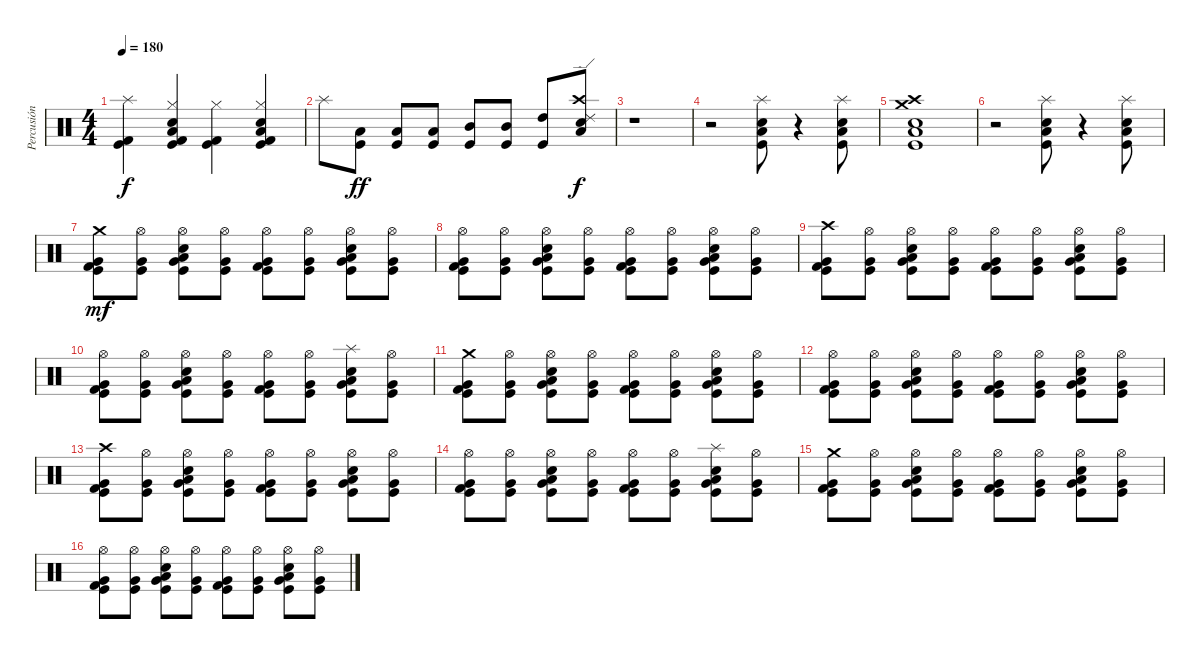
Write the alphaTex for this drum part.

\track ("Percusión" "Percusión") {instrument percussion}
\staff {score}
\articulation defaults
\ts (4 4)
\tempo 180
\clef neutral
\ks c
("Splash (hit)" "Kick (hit) 2" "Kick (hit)").4{dy f} ("Hi-Hat (closed)" "Electric Snare (hit)" "Low Tom (hit)" "Kick (hit) 2" "Kick (hit)").4 ("Hi-Hat (closed)" "Kick (hit) 2" "Kick (hit)").4 ("Hi-Hat (closed)" "Electric Snare (hit)" "Low Tom (hit)" "Kick (hit) 2" "Kick (hit)").4 |
"Splash (hit)".8 ("Low Floor Tom (hit)" "Kick (hit)").8{dy ff} ("Low Floor Tom (hit)" "Kick (hit)").8 ("Low Tom (hit)" "Kick (hit)").8 ("Mid Tom (hit)" "Kick (hit)").8 ("Mid Tom (hit)" "Kick (hit)").8 ("High Tom (hit)" "Kick (hit)").8 ("Crash high (hit)" "Ride (edge) 2" "Low Tom (hit)" "Electric Snare (hit)").8{dy f} |
r.1 |
r.2 ("Kick (hit)" "Splash (hit)" "Low Tom (hit)" "Electric Snare (hit)").8 r.4 ("Splash (hit)" "Kick (hit)" "Low Tom (hit)" "Electric Snare (hit)").8 |
("Crash high (hit)" "Crash medium (hit)" "Kick (hit)" "Low Tom (hit)" "Electric Snare (hit)").1 |
r.2 ("Kick (hit)" "Splash (hit)" "Low Tom (hit)" "Electric Snare (hit)").8 r.4 ("Splash (hit)" "Kick (hit)" "Low Tom (hit)" "Electric Snare (hit)").8 |
("Crash medium (hit)" "Very Low Tom (hit)" "Kick (hit) 2" "Kick (hit)").8{dy mf} ("Hi-Hat (open)" "Very Low Tom (hit)" "Kick (hit)").8 ("Hi-Hat (open)" "Electric Snare (hit)" "Low Floor Tom (hit)" "Very Low Tom (hit)" "Kick (hit)").8 ("Hi-Hat (open)" "Very Low Tom (hit)" "Kick (hit)").8 ("Hi-Hat (open)" "Very Low Tom (hit)" "Kick (hit) 2" "Kick (hit)").8 ("Hi-Hat (open)" "Very Low Tom (hit)" "Kick (hit)").8 ("Hi-Hat (open)" "Electric Snare (hit)" "Low Floor Tom (hit)" "Very Low Tom (hit)" "Kick (hit)").8 ("Hi-Hat (open)" "Very Low Tom (hit)" "Kick (hit)").8 |
("Hi-Hat (open)" "Very Low Tom (hit)" "Kick (hit) 2" "Kick (hit)").8 ("Hi-Hat (open)" "Very Low Tom (hit)" "Kick (hit)").8 ("Hi-Hat (open)" "Electric Snare (hit)" "Low Floor Tom (hit)" "Very Low Tom (hit)" "Kick (hit)").8 ("Hi-Hat (open)" "Very Low Tom (hit)" "Kick (hit)").8 ("Hi-Hat (open)" "Very Low Tom (hit)" "Kick (hit) 2" "Kick (hit)").8 ("Hi-Hat (open)" "Very Low Tom (hit)" "Kick (hit)").8 ("Hi-Hat (open)" "Electric Snare (hit)" "Low Floor Tom (hit)" "Very Low Tom (hit)" "Kick (hit)").8 ("Hi-Hat (open)" "Very Low Tom (hit)" "Kick (hit)").8 |
("Crash high (hit)" "Very Low Tom (hit)" "Kick (hit) 2" "Kick (hit)").8 ("Hi-Hat (open)" "Very Low Tom (hit)" "Kick (hit)").8 ("Hi-Hat (open)" "Electric Snare (hit)" "Low Floor Tom (hit)" "Very Low Tom (hit)" "Kick (hit)").8 ("Hi-Hat (open)" "Very Low Tom (hit)" "Kick (hit)").8 ("Hi-Hat (open)" "Very Low Tom (hit)" "Kick (hit) 2" "Kick (hit)").8 ("Hi-Hat (open)" "Very Low Tom (hit)" "Kick (hit)").8 ("Hi-Hat (open)" "Electric Snare (hit)" "Low Floor Tom (hit)" "Very Low Tom (hit)" "Kick (hit)").8 ("Hi-Hat (open)" "Very Low Tom (hit)" "Kick (hit)").8 |
("Hi-Hat (open)" "Very Low Tom (hit)" "Kick (hit) 2" "Kick (hit)").8 ("Hi-Hat (open)" "Very Low Tom (hit)" "Kick (hit)").8 ("Hi-Hat (open)" "Electric Snare (hit)" "Low Floor Tom (hit)" "Very Low Tom (hit)" "Kick (hit)").8 ("Hi-Hat (open)" "Very Low Tom (hit)" "Kick (hit)").8 ("Hi-Hat (open)" "Very Low Tom (hit)" "Kick (hit) 2" "Kick (hit)").8 ("Hi-Hat (open)" "Very Low Tom (hit)" "Kick (hit)").8 ("Splash (hit)" "Electric Snare (hit)" "Low Floor Tom (hit)" "Very Low Tom (hit)" "Kick (hit)").8 ("Hi-Hat (open)" "Very Low Tom (hit)" "Kick (hit)").8 |
("Crash medium (hit)" "Very Low Tom (hit)" "Kick (hit) 2" "Kick (hit)").8 ("Hi-Hat (open)" "Very Low Tom (hit)" "Kick (hit)").8 ("Hi-Hat (open)" "Electric Snare (hit)" "Low Floor Tom (hit)" "Very Low Tom (hit)" "Kick (hit)").8 ("Hi-Hat (open)" "Very Low Tom (hit)" "Kick (hit)").8 ("Hi-Hat (open)" "Very Low Tom (hit)" "Kick (hit) 2" "Kick (hit)").8 ("Hi-Hat (open)" "Very Low Tom (hit)" "Kick (hit)").8 ("Hi-Hat (open)" "Electric Snare (hit)" "Low Floor Tom (hit)" "Very Low Tom (hit)" "Kick (hit)").8 ("Hi-Hat (open)" "Very Low Tom (hit)" "Kick (hit)").8 |
("Hi-Hat (open)" "Very Low Tom (hit)" "Kick (hit) 2" "Kick (hit)").8 ("Hi-Hat (open)" "Very Low Tom (hit)" "Kick (hit)").8 ("Hi-Hat (open)" "Electric Snare (hit)" "Low Floor Tom (hit)" "Very Low Tom (hit)" "Kick (hit)").8 ("Hi-Hat (open)" "Very Low Tom (hit)" "Kick (hit)").8 ("Hi-Hat (open)" "Very Low Tom (hit)" "Kick (hit) 2" "Kick (hit)").8 ("Hi-Hat (open)" "Very Low Tom (hit)" "Kick (hit)").8 ("Hi-Hat (open)" "Electric Snare (hit)" "Low Floor Tom (hit)" "Very Low Tom (hit)" "Kick (hit)").8 ("Hi-Hat (open)" "Very Low Tom (hit)" "Kick (hit)").8 |
("Crash high (hit)" "Very Low Tom (hit)" "Kick (hit) 2" "Kick (hit)").8 ("Hi-Hat (open)" "Very Low Tom (hit)" "Kick (hit)").8 ("Hi-Hat (open)" "Electric Snare (hit)" "Low Floor Tom (hit)" "Very Low Tom (hit)" "Kick (hit)").8 ("Hi-Hat (open)" "Very Low Tom (hit)" "Kick (hit)").8 ("Hi-Hat (open)" "Very Low Tom (hit)" "Kick (hit) 2" "Kick (hit)").8 ("Hi-Hat (open)" "Very Low Tom (hit)" "Kick (hit)").8 ("Hi-Hat (open)" "Electric Snare (hit)" "Low Floor Tom (hit)" "Very Low Tom (hit)" "Kick (hit)").8 ("Hi-Hat (open)" "Very Low Tom (hit)" "Kick (hit)").8 |
("Hi-Hat (open)" "Very Low Tom (hit)" "Kick (hit) 2" "Kick (hit)").8 ("Hi-Hat (open)" "Very Low Tom (hit)" "Kick (hit)").8 ("Hi-Hat (open)" "Electric Snare (hit)" "Low Floor Tom (hit)" "Very Low Tom (hit)" "Kick (hit)").8 ("Hi-Hat (open)" "Very Low Tom (hit)" "Kick (hit)").8 ("Hi-Hat (open)" "Very Low Tom (hit)" "Kick (hit) 2" "Kick (hit)").8 ("Hi-Hat (open)" "Very Low Tom (hit)" "Kick (hit)").8 ("Splash (hit)" "Electric Snare (hit)" "Low Floor Tom (hit)" "Very Low Tom (hit)" "Kick (hit)").8 ("Hi-Hat (open)" "Very Low Tom (hit)" "Kick (hit)").8 |
("Crash medium (hit)" "Very Low Tom (hit)" "Kick (hit) 2" "Kick (hit)").8 ("Hi-Hat (open)" "Very Low Tom (hit)" "Kick (hit)").8 ("Hi-Hat (open)" "Electric Snare (hit)" "Low Floor Tom (hit)" "Very Low Tom (hit)" "Kick (hit)").8 ("Hi-Hat (open)" "Very Low Tom (hit)" "Kick (hit)").8 ("Hi-Hat (open)" "Very Low Tom (hit)" "Kick (hit) 2" "Kick (hit)").8 ("Hi-Hat (open)" "Very Low Tom (hit)" "Kick (hit)").8 ("Hi-Hat (open)" "Electric Snare (hit)" "Low Floor Tom (hit)" "Very Low Tom (hit)" "Kick (hit)").8 ("Hi-Hat (open)" "Very Low Tom (hit)" "Kick (hit)").8 |
("Hi-Hat (open)" "Very Low Tom (hit)" "Kick (hit) 2" "Kick (hit)").8 ("Hi-Hat (open)" "Very Low Tom (hit)" "Kick (hit)").8 ("Hi-Hat (open)" "Electric Snare (hit)" "Low Floor Tom (hit)" "Very Low Tom (hit)" "Kick (hit)").8 ("Hi-Hat (open)" "Very Low Tom (hit)" "Kick (hit)").8 ("Hi-Hat (open)" "Very Low Tom (hit)" "Kick (hit) 2" "Kick (hit)").8 ("Hi-Hat (open)" "Very Low Tom (hit)" "Kick (hit)").8 ("Hi-Hat (open)" "Electric Snare (hit)" "Low Floor Tom (hit)" "Very Low Tom (hit)" "Kick (hit)").8 ("Hi-Hat (open)" "Very Low Tom (hit)" "Kick (hit)").8
